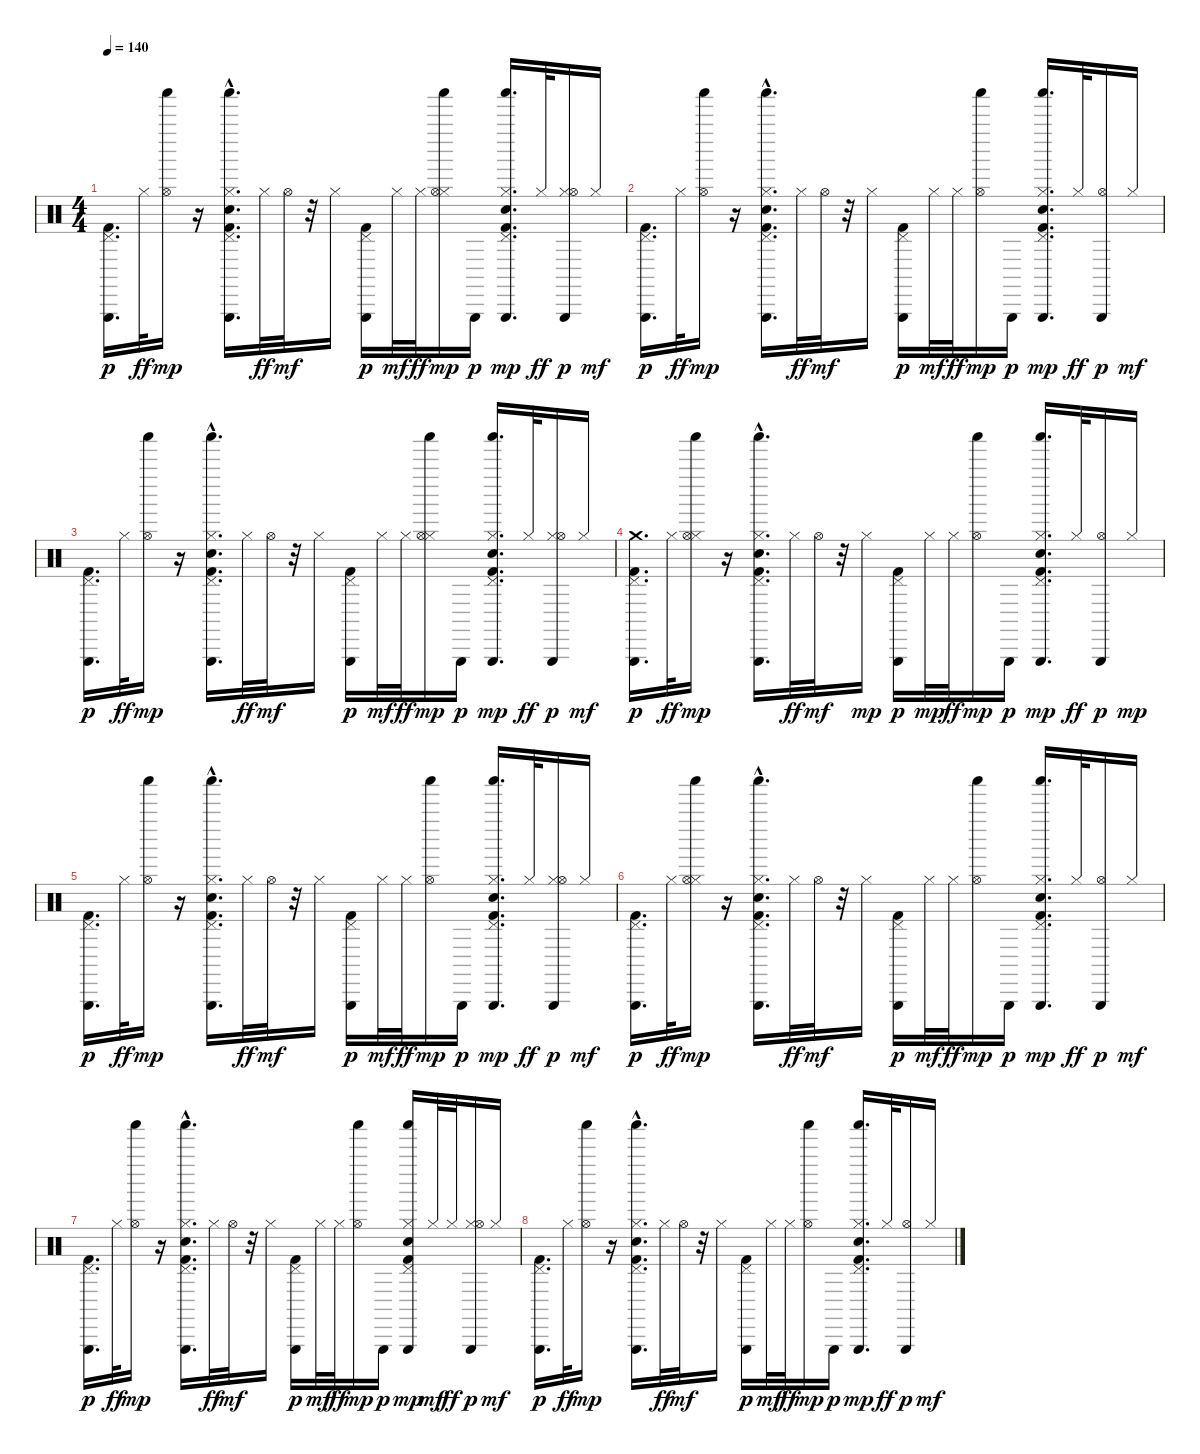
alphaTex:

\track "" {instrument percussion}
\staff {score}
\articulation defaults
\ts (4 4)
\tempo 140
\clef neutral
\ks c
("Pedal Hi-Hat (hit)" "Kick (hit) 2" "Triangle (hit)").16{d dy p} "Hi-Hat (closed)".32{dy ff} ("Hi-Hat (open)" "Shaker (hit)").16{dy mp} r.16 ("Pedal Hi-Hat (hit)" "Kick (hit) 2" "Hi-Hat (closed)" "Hand Clap (hit)"{hac} "Triangle (hit)" "Shaker (hit)").16{d} "Hi-Hat (closed)".32{dy ff} "Hi-Hat (open)".32{dy mf} r.32 "Hi-Hat (closed)".16 ("Pedal Hi-Hat (hit)" "Kick (hit) 2" "Triangle (hit)").16{dy p} "Hi-Hat (closed)".32{dy mf} "Hi-Hat (closed)".32{dy ff} ("Hi-Hat (closed)" "Hi-Hat (open)" "Shaker (hit)").16{dy mp} "Triangle (hit)".16{dy p} ("Pedal Hi-Hat (hit)" "Hand Clap (hit)" "Hi-Hat (closed)" "Kick (hit) 2" "Triangle (hit)" "Shaker (hit)").16{d dy mp} "Hi-Hat (closed)".32{dy ff} ("Hi-Hat (closed)" "Hi-Hat (open)" "Triangle (hit)").16{dy p} "Hi-Hat (closed)".16{dy mf} |
("Pedal Hi-Hat (hit)" "Kick (hit) 2" "Triangle (hit)").16{d dy p} "Hi-Hat (closed)".32{dy ff} ("Hi-Hat (open)" "Shaker (hit)").16{dy mp} r.16 ("Pedal Hi-Hat (hit)" "Hand Clap (hit)"{hac} "Hi-Hat (closed)" "Kick (hit) 2" "Triangle (hit)" "Shaker (hit)").16{d} "Hi-Hat (closed)".32{dy ff} "Hi-Hat (open)".32{dy mf} r.32 "Hi-Hat (closed)".16 ("Pedal Hi-Hat (hit)" "Kick (hit) 2" "Triangle (hit)").16{dy p} "Hi-Hat (closed)".32{dy mf} "Hi-Hat (closed)".32{dy ff} ("Hi-Hat (open)" "Shaker (hit)").16{dy mp} "Triangle (hit)".16{dy p} ("Pedal Hi-Hat (hit)" "Hand Clap (hit)" "Hi-Hat (closed)" "Kick (hit) 2" "Triangle (hit)" "Shaker (hit)").16{d dy mp} "Hi-Hat (closed)".32{dy ff} ("Hi-Hat (open)" "Triangle (hit)").16{dy p} "Hi-Hat (closed)".16{dy mf} |
("Pedal Hi-Hat (hit)" "Kick (hit) 2" "Triangle (hit)").16{d dy p} "Hi-Hat (closed)".32{dy ff} ("Hi-Hat (open)" "Shaker (hit)").16{dy mp} r.16 ("Pedal Hi-Hat (hit)" "Kick (hit) 2" "Hi-Hat (closed)" "Hand Clap (hit)"{hac} "Triangle (hit)" "Shaker (hit)").16{d} "Hi-Hat (closed)".32{dy ff} "Hi-Hat (open)".32{dy mf} r.32 "Hi-Hat (closed)".16 ("Pedal Hi-Hat (hit)" "Kick (hit) 2" "Triangle (hit)").16{dy p} "Hi-Hat (closed)".32{dy mf} "Hi-Hat (closed)".32{dy ff} ("Hi-Hat (closed)" "Hi-Hat (open)" "Shaker (hit)").16{dy mp} "Triangle (hit)".16{dy p} ("Pedal Hi-Hat (hit)" "Hand Clap (hit)" "Hi-Hat (closed)" "Kick (hit) 2" "Triangle (hit)" "Shaker (hit)").16{d dy mp} "Hi-Hat (closed)".32{dy ff} ("Hi-Hat (closed)" "Hi-Hat (open)" "Triangle (hit)").16{dy p} "Hi-Hat (closed)".16{dy mf} |
("Crash medium (hit)" "Kick (hit) 2" "Pedal Hi-Hat (hit)" "Triangle (hit)").16{d dy p} "Hi-Hat (closed)".32{dy ff} ("Hi-Hat (closed)" "Hi-Hat (open)" "Shaker (hit)").16{dy mp} r.16 ("Pedal Hi-Hat (hit)" "Kick (hit) 2" "Hi-Hat (closed)" "Hand Clap (hit)"{hac} "Triangle (hit)" "Shaker (hit)").16{d} "Hi-Hat (closed)".32{dy ff} "Hi-Hat (open)".32{dy mf} r.32 "Hi-Hat (closed)".16{dy mp} ("Pedal Hi-Hat (hit)" "Kick (hit) 2" "Triangle (hit)").16{dy p} "Hi-Hat (closed)".32{dy mp} "Hi-Hat (closed)".32{dy ff} ("Hi-Hat (open)" "Shaker (hit)").16{dy mp} "Triangle (hit)".16{dy p} ("Kick (hit) 2" "Pedal Hi-Hat (hit)" "Hand Clap (hit)" "Hi-Hat (closed)" "Triangle (hit)" "Shaker (hit)").16{d dy mp} "Hi-Hat (closed)".32{dy ff} ("Hi-Hat (open)" "Triangle (hit)").16{dy p} "Hi-Hat (closed)".16{dy mp} |
("Pedal Hi-Hat (hit)" "Kick (hit) 2" "Triangle (hit)").16{d dy p} "Hi-Hat (closed)".32{dy ff} ("Hi-Hat (open)" "Shaker (hit)").16{dy mp} r.16 ("Hi-Hat (closed)" "Hand Clap (hit)"{hac} "Pedal Hi-Hat (hit)" "Kick (hit) 2" "Triangle (hit)" "Shaker (hit)").16{d} "Hi-Hat (closed)".32{dy ff} "Hi-Hat (open)".32{dy mf} r.32 "Hi-Hat (closed)".16 ("Pedal Hi-Hat (hit)" "Kick (hit) 2" "Triangle (hit)").16{dy p} "Hi-Hat (closed)".32{dy mf} "Hi-Hat (closed)".32{dy ff} ("Hi-Hat (open)" "Shaker (hit)").16{dy mp} "Triangle (hit)".16{dy p} ("Hi-Hat (closed)" "Hand Clap (hit)" "Pedal Hi-Hat (hit)" "Kick (hit) 2" "Triangle (hit)" "Shaker (hit)").16{d dy mp} "Hi-Hat (closed)".32{dy ff} ("Hi-Hat (closed)" "Hi-Hat (open)" "Triangle (hit)").16{dy p} "Hi-Hat (closed)".16{dy mf} |
("Pedal Hi-Hat (hit)" "Kick (hit) 2" "Triangle (hit)").16{d dy p} "Hi-Hat (closed)".32{dy ff} ("Hi-Hat (closed)" "Hi-Hat (open)" "Shaker (hit)").16{dy mp} r.16 ("Hi-Hat (closed)" "Kick (hit) 2" "Pedal Hi-Hat (hit)" "Hand Clap (hit)"{hac} "Triangle (hit)" "Shaker (hit)").16{d} "Hi-Hat (closed)".32{dy ff} "Hi-Hat (open)".32{dy mf} r.32 "Hi-Hat (closed)".16 ("Pedal Hi-Hat (hit)" "Kick (hit) 2" "Triangle (hit)").16{dy p} "Hi-Hat (closed)".32{dy mf} "Hi-Hat (closed)".32{dy ff} ("Hi-Hat (open)" "Shaker (hit)").16{dy mp} "Triangle (hit)".16{dy p} ("Hi-Hat (closed)" "Kick (hit) 2" "Pedal Hi-Hat (hit)" "Hand Clap (hit)" "Triangle (hit)" "Shaker (hit)").16{d dy mp} "Hi-Hat (closed)".32{dy ff} ("Hi-Hat (open)" "Triangle (hit)").16{dy p} "Hi-Hat (closed)".16{dy mf} |
("Pedal Hi-Hat (hit)" "Kick (hit) 2" "Triangle (hit)").16{d dy p} "Hi-Hat (closed)".32{dy ff} ("Hi-Hat (open)" "Shaker (hit)").16{dy mp} r.16 ("Hi-Hat (closed)" "Hand Clap (hit)"{hac} "Pedal Hi-Hat (hit)" "Kick (hit) 2" "Triangle (hit)" "Shaker (hit)").16{d} "Hi-Hat (closed)".32{dy ff} "Hi-Hat (open)".32{dy mf} r.32 "Hi-Hat (closed)".16 ("Pedal Hi-Hat (hit)" "Kick (hit) 2" "Triangle (hit)").16{dy p} "Hi-Hat (closed)".32{dy mf} "Hi-Hat (closed)".32{dy ff} ("Hi-Hat (open)" "Shaker (hit)").16{dy mp} "Triangle (hit)".16{dy p} ("Hi-Hat (closed)" "Pedal Hi-Hat (hit)" "Kick (hit) 2" "Hand Clap (hit)" "Triangle (hit)" "Shaker (hit)").16{dy mp} "Hi-Hat (closed)".32{dy mf} "Hi-Hat (closed)".32{dy ff} ("Hi-Hat (closed)" "Hi-Hat (open)" "Triangle (hit)").16{dy p} "Hi-Hat (closed)".16{dy mf} |
("Pedal Hi-Hat (hit)" "Kick (hit) 2" "Triangle (hit)").16{d dy p} "Hi-Hat (closed)".32{dy ff} ("Hi-Hat (open)" "Shaker (hit)").16{dy mp} r.16 ("Pedal Hi-Hat (hit)" "Hand Clap (hit)"{hac} "Hi-Hat (closed)" "Kick (hit) 2" "Triangle (hit)" "Shaker (hit)").16{d} "Hi-Hat (closed)".32{dy ff} "Hi-Hat (open)".32{dy mf} r.32 "Hi-Hat (closed)".16 ("Pedal Hi-Hat (hit)" "Kick (hit) 2" "Triangle (hit)").16{dy p} "Hi-Hat (closed)".32{dy mf} "Hi-Hat (closed)".32{dy ff} ("Hi-Hat (open)" "Shaker (hit)").16{dy mp} "Triangle (hit)".16{dy p} ("Pedal Hi-Hat (hit)" "Hand Clap (hit)" "Hi-Hat (closed)" "Kick (hit) 2" "Triangle (hit)" "Shaker (hit)").16{d dy mp} "Hi-Hat (closed)".32{dy ff} ("Hi-Hat (open)" "Triangle (hit)").16{dy p} "Hi-Hat (closed)".16{dy mf}
